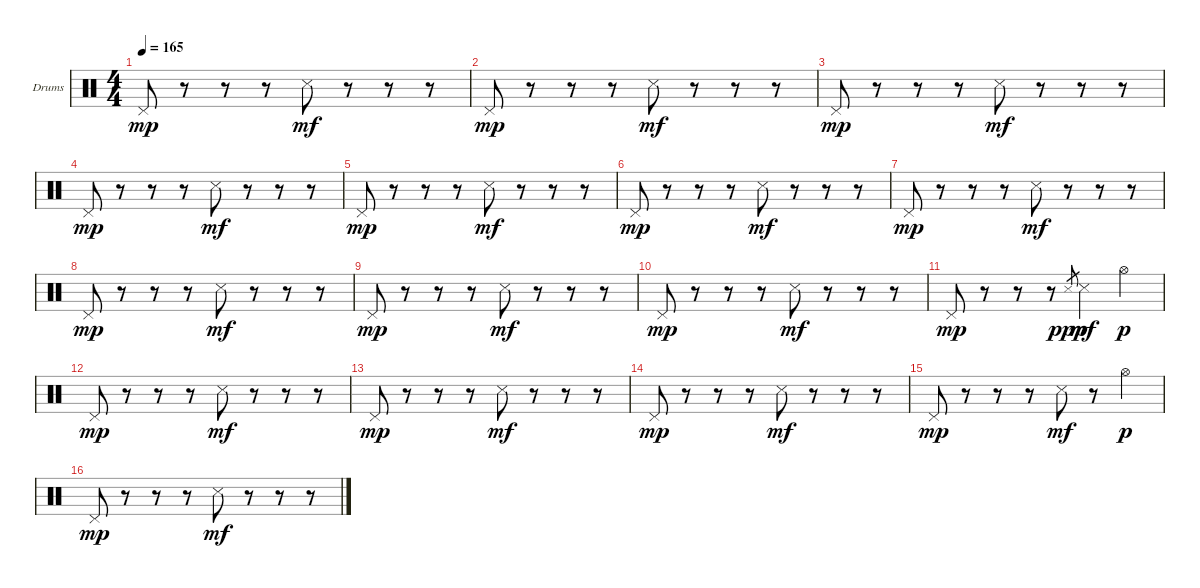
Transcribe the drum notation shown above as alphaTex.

\defaultSystemsLayout 4
\bracketExtendMode groupsimilarinstruments
\firstSystemTrackNameOrientation horizontal
\otherSystemsTrackNameOrientation horizontal
\track ("Drumkit" "Drums") {instrument percussion}
\staff {score}
\articulation defaults
\ts (4 4)
\tempo 165
\clef neutral
\ks c "Pedal Hi-Hat (hit)".8{dy mp}
r.8 r.8 r.8 "Snare (side stick) 3".8{dy mf} r.8 r.8 r.8 |
"Pedal Hi-Hat (hit)".8{dy mp} r.8 r.8 r.8 "Snare (side stick) 3".8{dy mf} r.8 r.8 r.8 |
"Pedal Hi-Hat (hit)".8{dy mp} r.8 r.8 r.8 "Snare (side stick) 3".8{dy mf} r.8 r.8 r.8 |
"Pedal Hi-Hat (hit)".8{dy mp} r.8 r.8 r.8 "Snare (side stick) 3".8{dy mf} r.8 r.8 r.8 |
"Pedal Hi-Hat (hit)".8{dy mp} r.8 r.8 r.8 "Snare (side stick) 3".8{dy mf} r.8 r.8 r.8 |
"Pedal Hi-Hat (hit)".8{dy mp} r.8 r.8 r.8 "Snare (side stick) 3".8{dy mf} r.8 r.8 r.8 |
"Pedal Hi-Hat (hit)".8{dy mp} r.8 r.8 r.8 "Snare (side stick) 3".8{dy mf} r.8 r.8 r.8 |
"Pedal Hi-Hat (hit)".8{dy mp} r.8 r.8 r.8 "Snare (side stick) 3".8{dy mf} r.8 r.8 r.8 |
"Pedal Hi-Hat (hit)".8{dy mp} r.8 r.8 r.8 "Snare (side stick) 3".8{dy mf} r.8 r.8 r.8 |
"Pedal Hi-Hat (hit)".8{dy mp} r.8 r.8 r.8 "Snare (side stick) 3".8{dy mf} r.8 r.8 r.8 |
"Pedal Hi-Hat (hit)".8{dy mp} r.8 r.8 r.8 "Snare (side stick) 3".8{gr dy ppp} "Snare (side stick) 3".4{dy mf} "Hi-Hat (open)".4{dy p} |
"Pedal Hi-Hat (hit)".8{dy mp} r.8 r.8 r.8 "Snare (side stick) 3".8{dy mf} r.8 r.8 r.8 |
"Pedal Hi-Hat (hit)".8{dy mp} r.8 r.8 r.8 "Snare (side stick) 3".8{dy mf} r.8 r.8 r.8 |
"Pedal Hi-Hat (hit)".8{dy mp} r.8 r.8 r.8 "Snare (side stick) 3".8{dy mf} r.8 r.8 r.8 |
"Pedal Hi-Hat (hit)".8{dy mp} r.8 r.8 r.8 "Snare (side stick) 3".8{dy mf} r.8 "Hi-Hat (open)".4{dy p} |
"Pedal Hi-Hat (hit)".8{dy mp} r.8 r.8 r.8 "Snare (side stick) 3".8{dy mf} r.8 r.8 r.8
